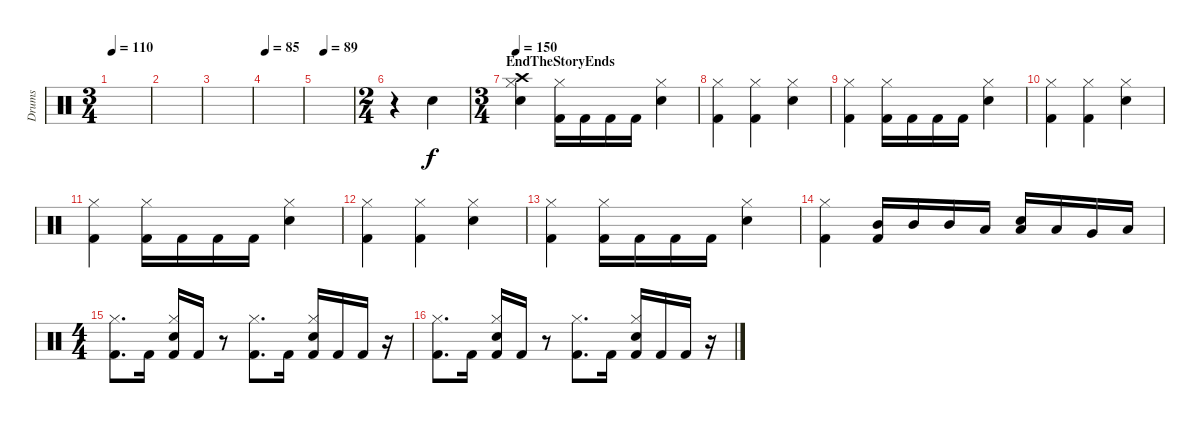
\track ("Drums" "Drums") {instrument percussion}
\staff {score}
\articulation defaults
\ts (3 4)
\tempo 110
\clef neutral
\ks c
|
|
|
\tempo 85
|
\tempo (89 0.20833333333333334)
|
\ts (2 4)
r.4 "Snare (hit) 2".4{dy f} |
\ts (3 4)
\section ("" "EndTheStoryEnds")
\tempo 150
("Snare (hit) 2" "Hi-Hat (closed)" "Crash high (hit)").4 ("Kick (hit) 2" "Hi-Hat (closed)").16 "Kick (hit) 2".16 "Kick (hit) 2".16 "Kick (hit) 2".16 ("Snare (hit) 2" "Hi-Hat (closed)").4 |
("Kick (hit) 2" "Hi-Hat (closed)").4 ("Kick (hit) 2" "Hi-Hat (closed)").4 ("Snare (hit) 2" "Hi-Hat (closed)").4 |
("Kick (hit) 2" "Hi-Hat (closed)").4 ("Kick (hit) 2" "Hi-Hat (closed)").16 "Kick (hit) 2".16 "Kick (hit) 2".16 "Kick (hit) 2".16 ("Snare (hit) 2" "Hi-Hat (closed)").4 |
("Kick (hit) 2" "Hi-Hat (closed)").4 ("Kick (hit) 2" "Hi-Hat (closed)").4 ("Snare (hit) 2" "Hi-Hat (closed)").4 |
("Kick (hit) 2" "Hi-Hat (closed)").4 ("Kick (hit) 2" "Hi-Hat (closed)").16 "Kick (hit) 2".16 "Kick (hit) 2".16 "Kick (hit) 2".16 ("Snare (hit) 2" "Hi-Hat (closed)").4 |
("Kick (hit) 2" "Hi-Hat (closed)").4 ("Kick (hit) 2" "Hi-Hat (closed)").4 ("Snare (hit) 2" "Hi-Hat (closed)").4 |
("Kick (hit) 2" "Hi-Hat (closed)").4 ("Kick (hit) 2" "Hi-Hat (closed)").16 "Kick (hit) 2".16 "Kick (hit) 2".16 "Kick (hit) 2".16 ("Snare (hit) 2" "Hi-Hat (closed)").4 |
("Kick (hit) 2" "Hi-Hat (closed)").4 ("Kick (hit) 2" "Mid Tom (hit)").16 "Mid Tom (hit)".16 "Mid Tom (hit)".16 "Low Tom (hit)".16 ("Snare (hit) 2" "Low Tom (hit)").16 "Low Tom (hit)".16 "Very Low Tom (hit)".16 "Low Floor Tom (hit)".16 |
\ts (4 4)
("Kick (hit) 2" "Hi-Hat (closed)").8{d} "Kick (hit) 2".16 ("Kick (hit) 2" "Snare (hit) 2" "Hi-Hat (closed)").16 "Kick (hit) 2".16 r.8 ("Kick (hit) 2" "Hi-Hat (closed)").8{d} "Kick (hit) 2".16 ("Kick (hit) 2" "Snare (hit) 2" "Hi-Hat (closed)").16 "Kick (hit) 2".16 "Kick (hit) 2".16 r.16 |
("Kick (hit) 2" "Hi-Hat (closed)").8{d} "Kick (hit) 2".16 ("Kick (hit) 2" "Snare (hit) 2" "Hi-Hat (closed)").16 "Kick (hit) 2".16 r.8 ("Kick (hit) 2" "Hi-Hat (closed)").8{d} "Kick (hit) 2".16 ("Kick (hit) 2" "Snare (hit) 2" "Hi-Hat (closed)").16 "Kick (hit) 2".16 "Kick (hit) 2".16 r.16
